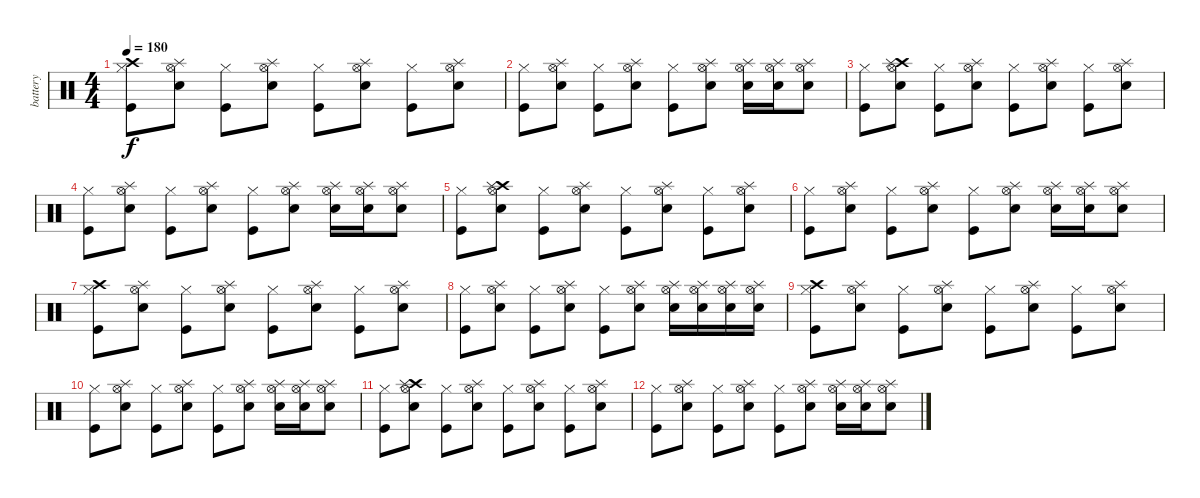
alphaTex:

\track ("battery" "battery") {instrument percussion}
\staff {score}
\articulation defaults
\ts (4 4)
\tempo 180
\clef neutral
\ks c
("Kick (hit)" "Hi-Hat (closed)" "Crash high (hit)").8{dy f} ("Electric Snare (hit)" "Hi-Hat (open)" "Splash (hit)").8 ("Kick (hit)" "Hi-Hat (closed)").8 ("Electric Snare (hit)" "Hi-Hat (open)" "Splash (hit)").8 ("Kick (hit)" "Hi-Hat (closed)").8 ("Electric Snare (hit)" "Hi-Hat (open)" "Splash (hit)").8 ("Kick (hit)" "Hi-Hat (closed)").8 ("Electric Snare (hit)" "Hi-Hat (open)" "Splash (hit)").8 |
("Kick (hit)" "Hi-Hat (closed)").8 ("Electric Snare (hit)" "Hi-Hat (open)" "Splash (hit)").8 ("Kick (hit)" "Hi-Hat (closed)").8 ("Electric Snare (hit)" "Hi-Hat (open)" "Splash (hit)").8 ("Kick (hit)" "Hi-Hat (closed)").8 ("Electric Snare (hit)" "Hi-Hat (open)" "Splash (hit)").8 ("Electric Snare (hit)" "Hi-Hat (open)" "Splash (hit)").16 ("Electric Snare (hit)" "Hi-Hat (open)" "Splash (hit)").16 ("Electric Snare (hit)" "Hi-Hat (open)" "Splash (hit)").8 |
("Kick (hit)" "Hi-Hat (closed)").8 ("Electric Snare (hit)" "Hi-Hat (open)" "Crash high (hit)" "Splash (hit)").8 ("Kick (hit)" "Hi-Hat (closed)").8 ("Electric Snare (hit)" "Hi-Hat (open)" "Splash (hit)").8 ("Kick (hit)" "Hi-Hat (closed)").8 ("Electric Snare (hit)" "Hi-Hat (open)" "Splash (hit)").8 ("Kick (hit)" "Hi-Hat (closed)").8 ("Electric Snare (hit)" "Hi-Hat (open)" "Splash (hit)").8 |
("Kick (hit)" "Hi-Hat (closed)").8 ("Electric Snare (hit)" "Hi-Hat (open)" "Splash (hit)").8 ("Kick (hit)" "Hi-Hat (closed)").8 ("Electric Snare (hit)" "Hi-Hat (open)" "Splash (hit)").8 ("Kick (hit)" "Hi-Hat (closed)").8 ("Electric Snare (hit)" "Hi-Hat (open)" "Splash (hit)").8 ("Electric Snare (hit)" "Hi-Hat (open)" "Splash (hit)").16 ("Electric Snare (hit)" "Hi-Hat (open)" "Splash (hit)").16 ("Electric Snare (hit)" "Hi-Hat (open)" "Splash (hit)").8 |
("Kick (hit)" "Hi-Hat (closed)").8 ("Electric Snare (hit)" "Hi-Hat (open)" "Crash high (hit)" "Splash (hit)").8 ("Kick (hit)" "Hi-Hat (closed)").8 ("Electric Snare (hit)" "Hi-Hat (open)" "Splash (hit)").8 ("Kick (hit)" "Hi-Hat (closed)").8 ("Electric Snare (hit)" "Hi-Hat (open)" "Splash (hit)").8 ("Kick (hit)" "Hi-Hat (closed)").8 ("Electric Snare (hit)" "Hi-Hat (open)" "Splash (hit)").8 |
("Kick (hit)" "Hi-Hat (closed)").8 ("Electric Snare (hit)" "Hi-Hat (open)" "Splash (hit)").8 ("Kick (hit)" "Hi-Hat (closed)").8 ("Electric Snare (hit)" "Hi-Hat (open)" "Splash (hit)").8 ("Kick (hit)" "Hi-Hat (closed)").8 ("Electric Snare (hit)" "Hi-Hat (open)" "Splash (hit)").8 ("Electric Snare (hit)" "Hi-Hat (open)" "Splash (hit)").16 ("Electric Snare (hit)" "Hi-Hat (open)" "Splash (hit)").16 ("Electric Snare (hit)" "Hi-Hat (open)" "Splash (hit)").8 |
("Kick (hit)" "Hi-Hat (closed)" "Crash high (hit)").8 ("Electric Snare (hit)" "Hi-Hat (open)" "Splash (hit)").8 ("Kick (hit)" "Hi-Hat (closed)").8 ("Electric Snare (hit)" "Hi-Hat (open)" "Splash (hit)").8 ("Kick (hit)" "Hi-Hat (closed)").8 ("Electric Snare (hit)" "Hi-Hat (open)" "Splash (hit)").8 ("Kick (hit)" "Hi-Hat (closed)").8 ("Electric Snare (hit)" "Hi-Hat (open)" "Splash (hit)").8 |
("Kick (hit)" "Hi-Hat (closed)").8 ("Electric Snare (hit)" "Hi-Hat (open)" "Splash (hit)").8 ("Kick (hit)" "Hi-Hat (closed)").8 ("Electric Snare (hit)" "Hi-Hat (open)" "Splash (hit)").8 ("Kick (hit)" "Hi-Hat (closed)").8 ("Electric Snare (hit)" "Hi-Hat (open)" "Splash (hit)").8 ("Electric Snare (hit)" "Hi-Hat (open)" "Splash (hit)").16 ("Electric Snare (hit)" "Hi-Hat (open)" "Splash (hit)").16 ("Electric Snare (hit)" "Hi-Hat (open)" "Splash (hit)").16 ("Electric Snare (hit)" "Hi-Hat (open)" "Splash (hit)").16 |
("Kick (hit)" "Hi-Hat (closed)" "Crash high (hit)").8 ("Electric Snare (hit)" "Hi-Hat (open)" "Splash (hit)").8 ("Kick (hit)" "Hi-Hat (closed)").8 ("Electric Snare (hit)" "Hi-Hat (open)" "Splash (hit)").8 ("Kick (hit)" "Hi-Hat (closed)").8 ("Electric Snare (hit)" "Hi-Hat (open)" "Splash (hit)").8 ("Kick (hit)" "Hi-Hat (closed)").8 ("Electric Snare (hit)" "Hi-Hat (open)" "Splash (hit)").8 |
("Kick (hit)" "Hi-Hat (closed)").8 ("Electric Snare (hit)" "Hi-Hat (open)" "Splash (hit)").8 ("Kick (hit)" "Hi-Hat (closed)").8 ("Electric Snare (hit)" "Hi-Hat (open)" "Splash (hit)").8 ("Kick (hit)" "Hi-Hat (closed)").8 ("Electric Snare (hit)" "Hi-Hat (open)" "Splash (hit)").8 ("Electric Snare (hit)" "Hi-Hat (open)" "Splash (hit)").16 ("Electric Snare (hit)" "Hi-Hat (open)" "Splash (hit)").16 ("Electric Snare (hit)" "Hi-Hat (open)" "Splash (hit)").8 |
("Kick (hit)" "Hi-Hat (closed)").8 ("Electric Snare (hit)" "Hi-Hat (open)" "Crash high (hit)" "Splash (hit)").8 ("Kick (hit)" "Hi-Hat (closed)").8 ("Electric Snare (hit)" "Hi-Hat (open)" "Splash (hit)").8 ("Kick (hit)" "Hi-Hat (closed)").8 ("Electric Snare (hit)" "Hi-Hat (open)" "Splash (hit)").8 ("Kick (hit)" "Hi-Hat (closed)").8 ("Electric Snare (hit)" "Hi-Hat (open)" "Splash (hit)").8 |
("Kick (hit)" "Hi-Hat (closed)").8 ("Electric Snare (hit)" "Hi-Hat (open)" "Splash (hit)").8 ("Kick (hit)" "Hi-Hat (closed)").8 ("Electric Snare (hit)" "Hi-Hat (open)" "Splash (hit)").8 ("Kick (hit)" "Hi-Hat (closed)").8 ("Electric Snare (hit)" "Hi-Hat (open)" "Splash (hit)").8 ("Electric Snare (hit)" "Hi-Hat (open)" "Splash (hit)").16 ("Electric Snare (hit)" "Hi-Hat (open)" "Splash (hit)").16 ("Electric Snare (hit)" "Hi-Hat (open)" "Splash (hit)").8
